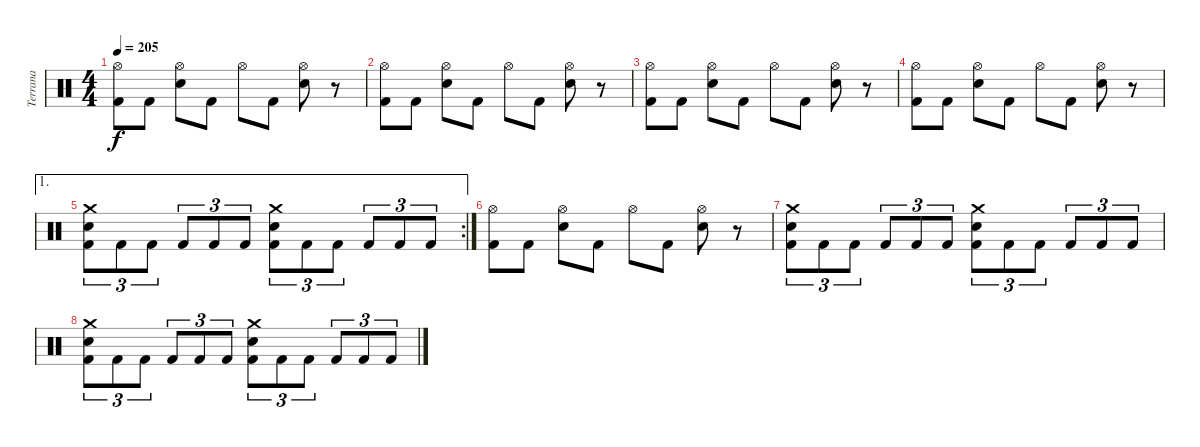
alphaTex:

\track ("Terrana" "Terrana") {instrument percussion}
\staff {score}
\articulation defaults
\ts (4 4)
\tempo 205
\clef neutral
\ks c
("Hi-Hat (open)" "Kick (hit) 2").8{dy f} "Kick (hit) 2".8 ("Hi-Hat (open)" "Electric Snare (hit)").8 "Kick (hit) 2".8 "Hi-Hat (open)".8 "Kick (hit) 2".8 ("Hi-Hat (open)" "Electric Snare (hit)").8 r.8 |
("Hi-Hat (open)" "Kick (hit) 2").8 "Kick (hit) 2".8 ("Hi-Hat (open)" "Electric Snare (hit)").8 "Kick (hit) 2".8 "Hi-Hat (open)".8 "Kick (hit) 2".8 ("Hi-Hat (open)" "Electric Snare (hit)").8 r.8 |
("Hi-Hat (open)" "Kick (hit) 2").8 "Kick (hit) 2".8 ("Hi-Hat (open)" "Electric Snare (hit)").8 "Kick (hit) 2".8 "Hi-Hat (open)".8 "Kick (hit) 2".8 ("Hi-Hat (open)" "Electric Snare (hit)").8 r.8 |
("Hi-Hat (open)" "Kick (hit) 2").8 "Kick (hit) 2".8 ("Hi-Hat (open)" "Electric Snare (hit)").8 "Kick (hit) 2".8 "Hi-Hat (open)".8 "Kick (hit) 2".8 ("Hi-Hat (open)" "Electric Snare (hit)").8 r.8 |
\ae 1
\rc 2
("Electric Snare (hit)" "Crash medium (hit)" "Kick (hit) 2").8{tu (3 2)} "Kick (hit) 2".8{tu (3 2)} "Kick (hit) 2".8{tu (3 2)} "Kick (hit) 2".8{tu (3 2)} "Kick (hit) 2".8{tu (3 2)} "Kick (hit) 2".8{tu (3 2)} ("Crash medium (hit)" "Electric Snare (hit)" "Kick (hit) 2").8{tu (3 2)} "Kick (hit) 2".8{tu (3 2)} "Kick (hit) 2".8{tu (3 2)} "Kick (hit) 2".8{tu (3 2)} "Kick (hit) 2".8{tu (3 2)} "Kick (hit) 2".8{tu (3 2)} |
("Hi-Hat (open)" "Kick (hit) 2").8 "Kick (hit) 2".8 ("Hi-Hat (open)" "Electric Snare (hit)").8 "Kick (hit) 2".8 "Hi-Hat (open)".8 "Kick (hit) 2".8 ("Hi-Hat (open)" "Electric Snare (hit)").8 r.8 |
("Electric Snare (hit)" "Crash medium (hit)" "Kick (hit) 2").8{tu (3 2)} "Kick (hit) 2".8{tu (3 2)} "Kick (hit) 2".8{tu (3 2)} "Kick (hit) 2".8{tu (3 2)} "Kick (hit) 2".8{tu (3 2)} "Kick (hit) 2".8{tu (3 2)} ("Crash medium (hit)" "Electric Snare (hit)" "Kick (hit) 2").8{tu (3 2)} "Kick (hit) 2".8{tu (3 2)} "Kick (hit) 2".8{tu (3 2)} "Kick (hit) 2".8{tu (3 2)} "Kick (hit) 2".8{tu (3 2)} "Kick (hit) 2".8{tu (3 2)} |
("Electric Snare (hit)" "Crash medium (hit)" "Kick (hit) 2").8{tu (3 2)} "Kick (hit) 2".8{tu (3 2)} "Kick (hit) 2".8{tu (3 2)} "Kick (hit) 2".8{tu (3 2)} "Kick (hit) 2".8{tu (3 2)} "Kick (hit) 2".8{tu (3 2)} ("Crash medium (hit)" "Electric Snare (hit)" "Kick (hit) 2").8{tu (3 2)} "Kick (hit) 2".8{tu (3 2)} "Kick (hit) 2".8{tu (3 2)} "Kick (hit) 2".8{tu (3 2)} "Kick (hit) 2".8{tu (3 2)} "Kick (hit) 2".8{tu (3 2)}
